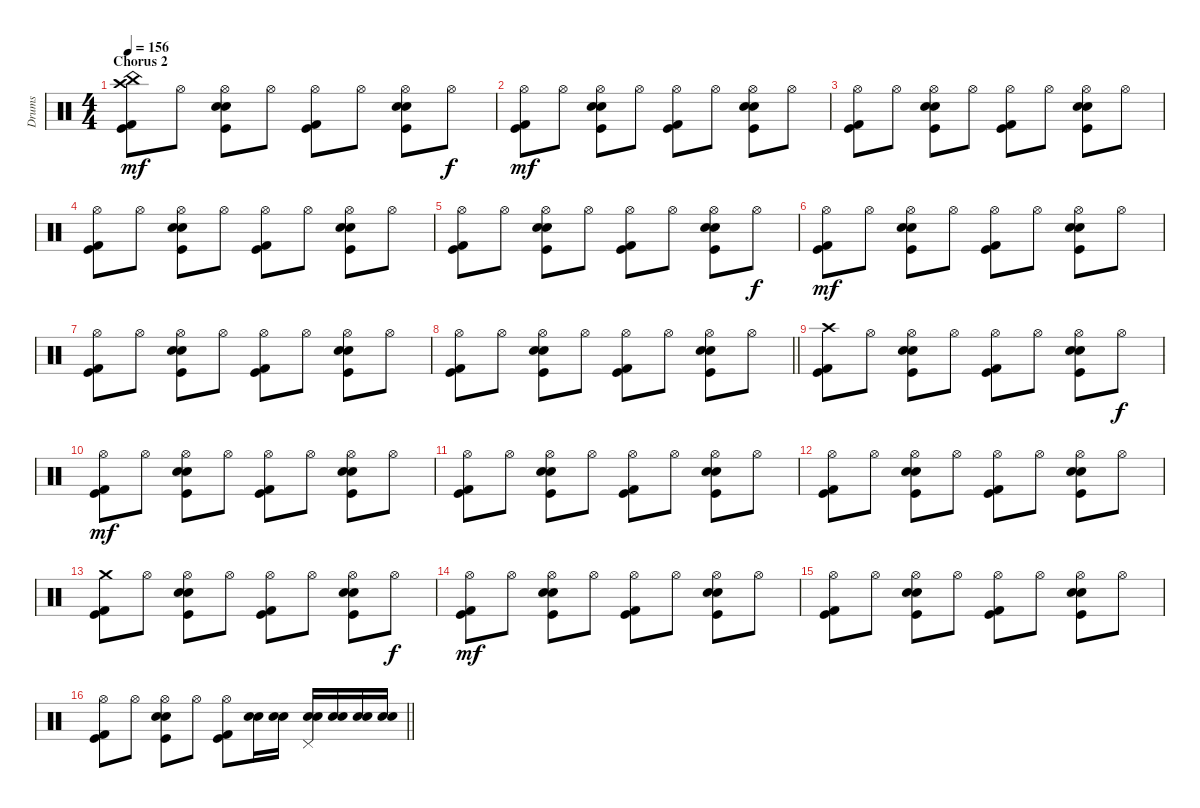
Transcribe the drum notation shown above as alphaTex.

\track ("Drums" "Drums") {instrument percussion}
\staff {score}
\articulation defaults
\ts (4 4)
\section ("" "Chorus 2")
\tempo 156
\clef neutral
\ks c
("Crash high (hit)" "China (hit)" "Kick (hit) 2" "Kick (hit)").8{dy mf} "Hi-Hat (open)".8 ("Hi-Hat (open)" "Snare (hit) 2" "Electric Snare (hit)" "Kick (hit)").8 "Hi-Hat (open)".8 ("Hi-Hat (open)" "Kick (hit) 2" "Kick (hit)").8 "Hi-Hat (open)".8 ("Hi-Hat (open)" "Snare (hit) 2" "Electric Snare (hit)" "Kick (hit)").8 "Hi-Hat (open)".8{dy f} |
("Hi-Hat (open)" "Kick (hit) 2" "Kick (hit)").8{dy mf} "Hi-Hat (open)".8 ("Hi-Hat (open)" "Snare (hit) 2" "Electric Snare (hit)" "Kick (hit)").8 "Hi-Hat (open)".8 ("Hi-Hat (open)" "Kick (hit) 2" "Kick (hit)").8 "Hi-Hat (open)".8 ("Hi-Hat (open)" "Snare (hit) 2" "Electric Snare (hit)" "Kick (hit)").8 "Hi-Hat (open)".8 |
("Hi-Hat (open)" "Kick (hit) 2" "Kick (hit)").8 "Hi-Hat (open)".8 ("Hi-Hat (open)" "Snare (hit) 2" "Electric Snare (hit)" "Kick (hit)").8 "Hi-Hat (open)".8 ("Hi-Hat (open)" "Kick (hit) 2" "Kick (hit)").8 "Hi-Hat (open)".8 ("Hi-Hat (open)" "Snare (hit) 2" "Electric Snare (hit)" "Kick (hit)").8 "Hi-Hat (open)".8 |
("Hi-Hat (open)" "Kick (hit) 2" "Kick (hit)").8 "Hi-Hat (open)".8 ("Hi-Hat (open)" "Snare (hit) 2" "Electric Snare (hit)" "Kick (hit)").8 "Hi-Hat (open)".8 ("Hi-Hat (open)" "Kick (hit) 2" "Kick (hit)").8 "Hi-Hat (open)".8 ("Hi-Hat (open)" "Snare (hit) 2" "Electric Snare (hit)" "Kick (hit)").8 "Hi-Hat (open)".8 |
("Hi-Hat (open)" "Kick (hit) 2" "Kick (hit)").8 "Hi-Hat (open)".8 ("Hi-Hat (open)" "Snare (hit) 2" "Electric Snare (hit)" "Kick (hit)").8 "Hi-Hat (open)".8 ("Hi-Hat (open)" "Kick (hit) 2" "Kick (hit)").8 "Hi-Hat (open)".8 ("Hi-Hat (open)" "Snare (hit) 2" "Electric Snare (hit)" "Kick (hit)").8 "Hi-Hat (open)".8{dy f} |
("Hi-Hat (open)" "Kick (hit) 2" "Kick (hit)").8{dy mf} "Hi-Hat (open)".8 ("Hi-Hat (open)" "Snare (hit) 2" "Electric Snare (hit)" "Kick (hit)").8 "Hi-Hat (open)".8 ("Hi-Hat (open)" "Kick (hit) 2" "Kick (hit)").8 "Hi-Hat (open)".8 ("Hi-Hat (open)" "Snare (hit) 2" "Electric Snare (hit)" "Kick (hit)").8 "Hi-Hat (open)".8 |
("Hi-Hat (open)" "Kick (hit) 2" "Kick (hit)").8 "Hi-Hat (open)".8 ("Hi-Hat (open)" "Snare (hit) 2" "Electric Snare (hit)" "Kick (hit)").8 "Hi-Hat (open)".8 ("Hi-Hat (open)" "Kick (hit) 2" "Kick (hit)").8 "Hi-Hat (open)".8 ("Hi-Hat (open)" "Snare (hit) 2" "Electric Snare (hit)" "Kick (hit)").8 "Hi-Hat (open)".8 |
\barLineRight lightlight
("Hi-Hat (open)" "Kick (hit) 2" "Kick (hit)").8 "Hi-Hat (open)".8 ("Hi-Hat (open)" "Snare (hit) 2" "Electric Snare (hit)" "Kick (hit)").8 "Hi-Hat (open)".8 ("Hi-Hat (open)" "Kick (hit) 2" "Kick (hit)").8 "Hi-Hat (open)".8 ("Hi-Hat (open)" "Snare (hit) 2" "Electric Snare (hit)" "Kick (hit)").8 "Hi-Hat (open)".8 |
("Crash high (hit)" "Kick (hit) 2" "Kick (hit)").8 "Hi-Hat (open)".8 ("Hi-Hat (open)" "Snare (hit) 2" "Electric Snare (hit)" "Kick (hit)").8 "Hi-Hat (open)".8 ("Hi-Hat (open)" "Kick (hit) 2" "Kick (hit)").8 "Hi-Hat (open)".8 ("Hi-Hat (open)" "Snare (hit) 2" "Electric Snare (hit)" "Kick (hit)").8 "Hi-Hat (open)".8{dy f} |
("Hi-Hat (open)" "Kick (hit) 2" "Kick (hit)").8{dy mf} "Hi-Hat (open)".8 ("Hi-Hat (open)" "Snare (hit) 2" "Electric Snare (hit)" "Kick (hit)").8 "Hi-Hat (open)".8 ("Hi-Hat (open)" "Kick (hit) 2" "Kick (hit)").8 "Hi-Hat (open)".8 ("Hi-Hat (open)" "Snare (hit) 2" "Electric Snare (hit)" "Kick (hit)").8 "Hi-Hat (open)".8 |
("Hi-Hat (open)" "Kick (hit) 2" "Kick (hit)").8 "Hi-Hat (open)".8 ("Hi-Hat (open)" "Snare (hit) 2" "Electric Snare (hit)" "Kick (hit)").8 "Hi-Hat (open)".8 ("Hi-Hat (open)" "Kick (hit) 2" "Kick (hit)").8 "Hi-Hat (open)".8 ("Hi-Hat (open)" "Snare (hit) 2" "Electric Snare (hit)" "Kick (hit)").8 "Hi-Hat (open)".8 |
("Hi-Hat (open)" "Kick (hit) 2" "Kick (hit)").8 "Hi-Hat (open)".8 ("Hi-Hat (open)" "Snare (hit) 2" "Electric Snare (hit)" "Kick (hit)").8 "Hi-Hat (open)".8 ("Hi-Hat (open)" "Kick (hit) 2" "Kick (hit)").8 "Hi-Hat (open)".8 ("Hi-Hat (open)" "Snare (hit) 2" "Electric Snare (hit)" "Kick (hit)").8 "Hi-Hat (open)".8 |
("Crash medium (hit)" "Kick (hit) 2" "Kick (hit)").8 "Hi-Hat (open)".8 ("Hi-Hat (open)" "Snare (hit) 2" "Electric Snare (hit)" "Kick (hit)").8 "Hi-Hat (open)".8 ("Hi-Hat (open)" "Kick (hit) 2" "Kick (hit)").8 "Hi-Hat (open)".8 ("Hi-Hat (open)" "Snare (hit) 2" "Electric Snare (hit)" "Kick (hit)").8 "Hi-Hat (open)".8{dy f} |
("Hi-Hat (open)" "Kick (hit) 2" "Kick (hit)").8{dy mf} "Hi-Hat (open)".8 ("Hi-Hat (open)" "Snare (hit) 2" "Electric Snare (hit)" "Kick (hit)").8 "Hi-Hat (open)".8 ("Hi-Hat (open)" "Kick (hit) 2" "Kick (hit)").8 "Hi-Hat (open)".8 ("Hi-Hat (open)" "Snare (hit) 2" "Electric Snare (hit)" "Kick (hit)").8 "Hi-Hat (open)".8 |
("Hi-Hat (open)" "Kick (hit) 2" "Kick (hit)").8 "Hi-Hat (open)".8 ("Hi-Hat (open)" "Snare (hit) 2" "Electric Snare (hit)" "Kick (hit)").8 "Hi-Hat (open)".8 ("Hi-Hat (open)" "Kick (hit) 2" "Kick (hit)").8 "Hi-Hat (open)".8 ("Hi-Hat (open)" "Snare (hit) 2" "Electric Snare (hit)" "Kick (hit)").8 "Hi-Hat (open)".8 |
\barLineRight lightlight
("Hi-Hat (open)" "Kick (hit) 2" "Kick (hit)").8 "Hi-Hat (open)".8 ("Hi-Hat (open)" "Snare (hit) 2" "Electric Snare (hit)" "Kick (hit)").8 "Hi-Hat (open)".8 ("Hi-Hat (open)" "Kick (hit) 2" "Kick (hit)").8 ("Snare (hit) 2" "Electric Snare (hit)").16 ("Snare (hit) 2" "Electric Snare (hit)").16 ("Pedal Hi-Hat (hit)" "Snare (hit) 2" "Electric Snare (hit)").16 ("Snare (hit) 2" "Electric Snare (hit)").16 ("Snare (hit) 2" "Electric Snare (hit)").16 ("Snare (hit) 2" "Electric Snare (hit)").16
